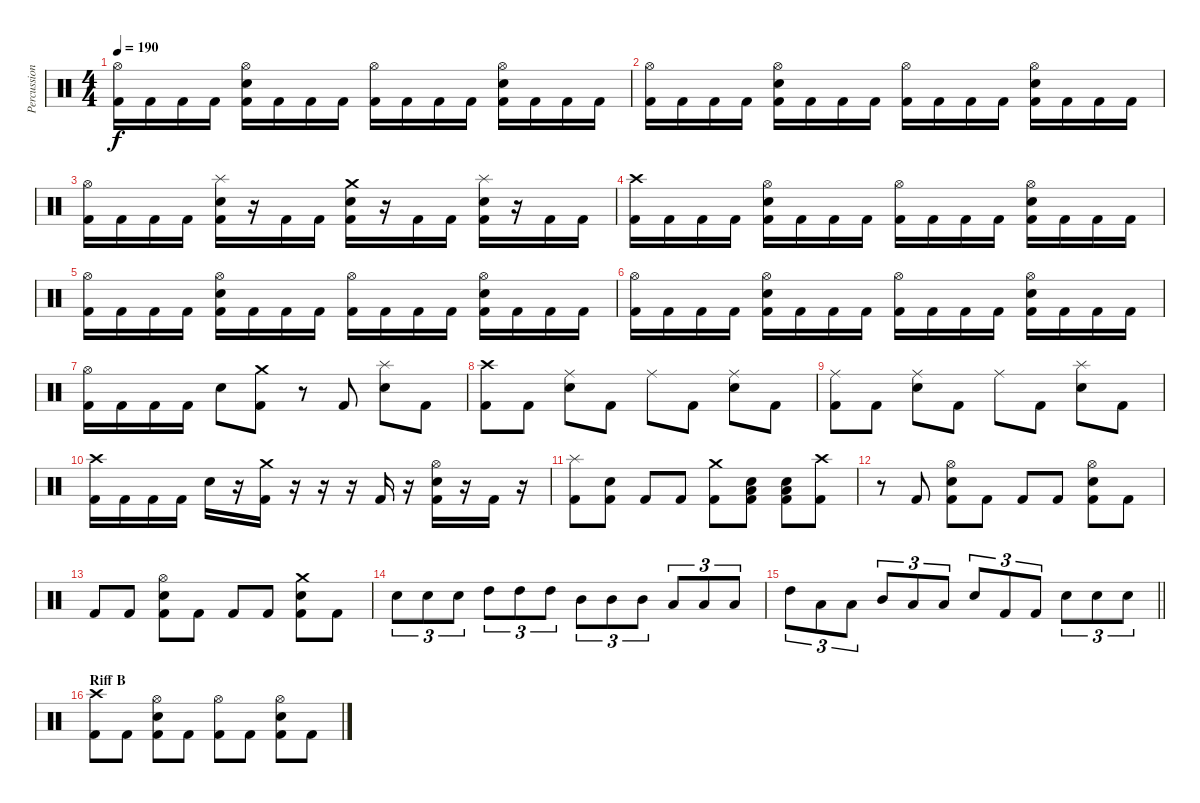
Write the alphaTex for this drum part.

\track ("Percussion" "Percussion") {instrument percussion}
\staff {score}
\articulation defaults
\ts (4 4)
\tempo 190
\clef neutral
\ks c
("Hi-Hat (open)" "Kick (hit) 2").16{dy f} "Kick (hit) 2".16 "Kick (hit) 2".16 "Kick (hit) 2".16 ("Hi-Hat (open)" "Snare (hit) 2" "Kick (hit) 2").16 "Kick (hit) 2".16 "Kick (hit) 2".16 "Kick (hit) 2".16 ("Hi-Hat (open)" "Kick (hit) 2").16 "Kick (hit) 2".16 "Kick (hit) 2".16 "Kick (hit) 2".16 ("Hi-Hat (open)" "Snare (hit) 2" "Kick (hit) 2").16 "Kick (hit) 2".16 "Kick (hit) 2".16 "Kick (hit) 2".16 |
("Hi-Hat (open)" "Kick (hit) 2").16 "Kick (hit) 2".16 "Kick (hit) 2".16 "Kick (hit) 2".16 ("Hi-Hat (open)" "Snare (hit) 2" "Kick (hit) 2").16 "Kick (hit) 2".16 "Kick (hit) 2".16 "Kick (hit) 2".16 ("Hi-Hat (open)" "Kick (hit) 2").16 "Kick (hit) 2".16 "Kick (hit) 2".16 "Kick (hit) 2".16 ("Hi-Hat (open)" "Snare (hit) 2" "Kick (hit) 2").16 "Kick (hit) 2".16 "Kick (hit) 2".16 "Kick (hit) 2".16 |
("Hi-Hat (open)" "Kick (hit) 2").16 "Kick (hit) 2".16 "Kick (hit) 2".16 "Kick (hit) 2".16 ("Splash (hit)" "Snare (hit) 2" "Kick (hit) 2").16 r.16 "Kick (hit) 2".16 "Kick (hit) 2".16 ("Crash medium (hit)" "Snare (hit) 2" "Kick (hit) 2").16 r.16 "Kick (hit) 2".16 "Kick (hit) 2".16 ("Splash (hit)" "Snare (hit) 2" "Kick (hit) 2").16 r.16 "Kick (hit) 2".16 "Kick (hit) 2".16 |
("Crash high (hit)" "Kick (hit) 2").16 "Kick (hit) 2".16 "Kick (hit) 2".16 "Kick (hit) 2".16 ("Hi-Hat (open)" "Snare (hit) 2" "Kick (hit) 2").16 "Kick (hit) 2".16 "Kick (hit) 2".16 "Kick (hit) 2".16 ("Hi-Hat (open)" "Kick (hit) 2").16 "Kick (hit) 2".16 "Kick (hit) 2".16 "Kick (hit) 2".16 ("Hi-Hat (open)" "Snare (hit) 2" "Kick (hit) 2").16 "Kick (hit) 2".16 "Kick (hit) 2".16 "Kick (hit) 2".16 |
("Hi-Hat (open)" "Kick (hit) 2").16 "Kick (hit) 2".16 "Kick (hit) 2".16 "Kick (hit) 2".16 ("Hi-Hat (open)" "Snare (hit) 2" "Kick (hit) 2").16 "Kick (hit) 2".16 "Kick (hit) 2".16 "Kick (hit) 2".16 ("Hi-Hat (open)" "Kick (hit) 2").16 "Kick (hit) 2".16 "Kick (hit) 2".16 "Kick (hit) 2".16 ("Hi-Hat (open)" "Snare (hit) 2" "Kick (hit) 2").16 "Kick (hit) 2".16 "Kick (hit) 2".16 "Kick (hit) 2".16 |
("Hi-Hat (open)" "Kick (hit) 2").16 "Kick (hit) 2".16 "Kick (hit) 2".16 "Kick (hit) 2".16 ("Hi-Hat (open)" "Snare (hit) 2" "Kick (hit) 2").16 "Kick (hit) 2".16 "Kick (hit) 2".16 "Kick (hit) 2".16 ("Hi-Hat (open)" "Kick (hit) 2").16 "Kick (hit) 2".16 "Kick (hit) 2".16 "Kick (hit) 2".16 ("Hi-Hat (open)" "Snare (hit) 2" "Kick (hit) 2").16 "Kick (hit) 2".16 "Kick (hit) 2".16 "Kick (hit) 2".16 |
("Hi-Hat (open)" "Kick (hit) 2").16 "Kick (hit) 2".16 "Kick (hit) 2".16 "Kick (hit) 2".16 "Snare (hit) 2".8 ("Crash medium (hit)" "Kick (hit) 2").8 r.8 "Kick (hit) 2".8 ("Splash (hit)" "Snare (hit) 2").8 "Kick (hit) 2".8 |
("Crash high (hit)" "Kick (hit) 2").8 "Kick (hit) 2".8 ("Ride (middle)" "Snare (hit) 2").8 "Kick (hit) 2".8 "Ride (middle)".8 "Kick (hit) 2".8 ("Ride (middle)" "Snare (hit) 2").8 "Kick (hit) 2".8 |
("Ride (middle)" "Kick (hit) 2").8 "Kick (hit) 2".8 ("Ride (middle)" "Snare (hit) 2").8 "Kick (hit) 2".8 "Ride (middle)".8 "Kick (hit) 2".8 ("Splash (hit)" "Snare (hit) 2").8 "Kick (hit) 2".8 |
("Crash high (hit)" "Kick (hit) 2").16 "Kick (hit) 2".16 "Kick (hit) 2".16 "Kick (hit) 2".16 "Snare (hit) 2".16 r.16 ("Crash medium (hit)" "Kick (hit) 2").16 r.16 r.16 r.16 "Kick (hit) 2".16 r.16 ("Hi-Hat (open)" "Snare (hit) 2" "Kick (hit) 2").16 r.16 "Kick (hit) 2".16 r.16 |
("Splash (hit)" "Kick (hit) 2").8 ("Snare (hit) 2" "Kick (hit) 2").8 "Kick (hit) 2".8 "Kick (hit) 2".8 ("Crash medium (hit)" "Kick (hit) 2").8 ("Low Tom (hit)" "Snare (hit) 2" "Kick (hit) 2").8 ("Low Tom (hit)" "Snare (hit) 2" "Kick (hit) 2").8 ("Crash high (hit)" "Kick (hit) 2").8 |
r.8 "Kick (hit) 2".8 ("Hi-Hat (open)" "Snare (hit) 2" "Kick (hit) 2").8 "Kick (hit) 2".8 "Kick (hit) 2".8 "Kick (hit) 2".8 ("Hi-Hat (open)" "Snare (hit) 2" "Kick (hit) 2").8 "Kick (hit) 2".8 |
"Kick (hit) 2".8 "Kick (hit) 2".8 ("Hi-Hat (open)" "Snare (hit) 2" "Kick (hit) 2").8 "Kick (hit) 2".8 "Kick (hit) 2".8 "Kick (hit) 2".8 ("Crash medium (hit)" "Snare (hit) 2" "Kick (hit) 2").8 "Kick (hit) 2".8 |
"Snare (hit) 2".8{tu (3 2)} "Snare (hit) 2".8{tu (3 2)} "Snare (hit) 2".8{tu (3 2)} "High Tom (hit)".8{tu (3 2)} "High Tom (hit)".8{tu (3 2)} "High Tom (hit)".8{tu (3 2)} "Mid Tom (hit)".8{tu (3 2)} "Mid Tom (hit)".8{tu (3 2)} "Mid Tom (hit)".8{tu (3 2)} "Low Tom (hit)".8{tu (3 2)} "Low Tom (hit)".8{tu (3 2)} "Low Tom (hit)".8{tu (3 2)} |
\barLineRight lightlight "High Tom (hit)".8{tu (3 2)} "Low Tom (hit)".8{tu (3 2)} "Low Tom (hit)".8{tu (3 2)} "Mid Tom (hit)".8{tu (3 2)} "Low Tom (hit)".8{tu (3 2)} "Low Tom (hit)".8{tu (3 2)} "Snare (hit) 2".8{tu (3 2)} "Kick (hit) 2".8{tu (3 2)} "Kick (hit) 2".8{tu (3 2)} "Snare (hit) 2".8{tu (3 2)} "Snare (hit) 2".8{tu (3 2)} "Snare (hit) 2".8{tu (3 2)}
|
\section ("" "Riff B")
("Crash high (hit)" "Kick (hit) 2").8 "Kick (hit) 2".8 ("Hi-Hat (open)" "Snare (hit) 2" "Kick (hit) 2").8 "Kick (hit) 2".8 ("Hi-Hat (open)" "Kick (hit) 2").8 "Kick (hit) 2".8 ("Hi-Hat (open)" "Snare (hit) 2" "Kick (hit) 2").8 "Kick (hit) 2".8
